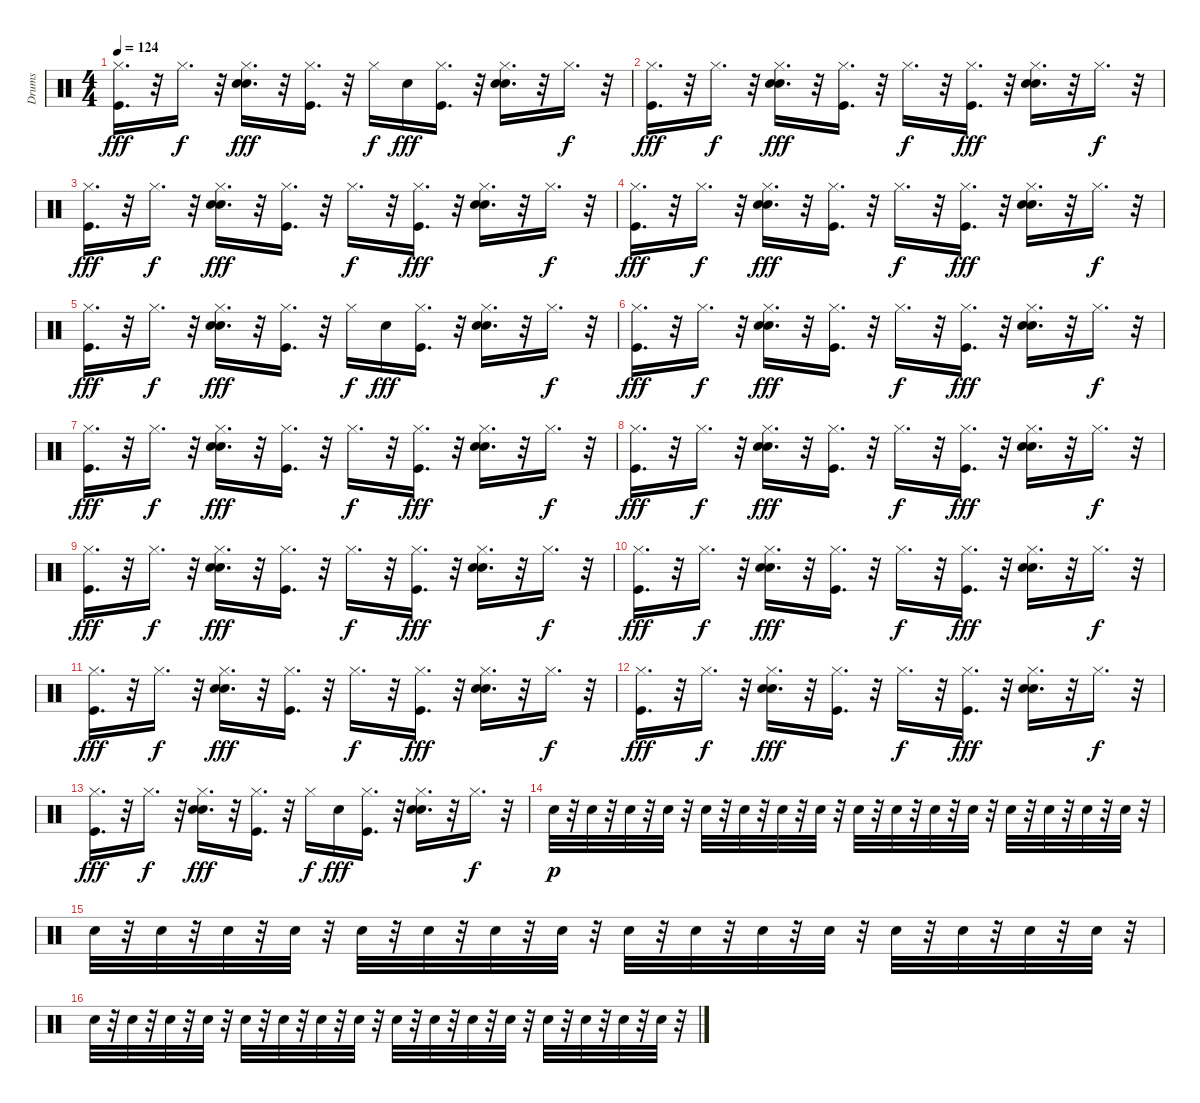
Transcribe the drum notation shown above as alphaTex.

\track ("Drums" "Drums") {instrument percussion}
\staff {score}
\articulation defaults
\ts (4 4)
\tempo 124
\clef neutral
\ks c
("Kick (hit)" "Hi-Hat (closed)").16{d dy fff} r.32 "Hi-Hat (closed)".16{d dy f} r.32 ("Snare (hit) 2" "Hand Clap (hit)" "Hi-Hat (closed)").16{d dy fff} r.32 ("Kick (hit)" "Hi-Hat (closed)").16{d} r.32 "Hi-Hat (closed)".16{dy f} "Snare (hit) 2".16{dy fff} ("Kick (hit)" "Hi-Hat (closed)").16{d} r.32 ("Snare (hit) 2" "Hand Clap (hit)" "Hi-Hat (closed)").16{d} r.32 "Hi-Hat (closed)".16{d dy f} r.32 |
("Kick (hit)" "Hi-Hat (closed)").16{d dy fff} r.32 "Hi-Hat (closed)".16{d dy f} r.32 ("Snare (hit) 2" "Hand Clap (hit)" "Hi-Hat (closed)").16{d dy fff} r.32 ("Kick (hit)" "Hi-Hat (closed)").16{d} r.32 "Hi-Hat (closed)".16{d dy f} r.32 ("Kick (hit)" "Hi-Hat (closed)").16{d dy fff} r.32 ("Snare (hit) 2" "Hand Clap (hit)" "Hi-Hat (closed)").16{d} r.32 "Hi-Hat (closed)".16{d dy f} r.32 |
("Kick (hit)" "Hi-Hat (closed)").16{d dy fff} r.32 "Hi-Hat (closed)".16{d dy f} r.32 ("Snare (hit) 2" "Hand Clap (hit)" "Hi-Hat (closed)").16{d dy fff} r.32 ("Kick (hit)" "Hi-Hat (closed)").16{d} r.32 "Hi-Hat (closed)".16{d dy f} r.32 ("Kick (hit)" "Hi-Hat (closed)").16{d dy fff} r.32 ("Snare (hit) 2" "Hand Clap (hit)" "Hi-Hat (closed)").16{d} r.32 "Hi-Hat (closed)".16{d dy f} r.32 |
("Kick (hit)" "Hi-Hat (closed)").16{d dy fff} r.32 "Hi-Hat (closed)".16{d dy f} r.32 ("Snare (hit) 2" "Hand Clap (hit)" "Hi-Hat (closed)").16{d dy fff} r.32 ("Kick (hit)" "Hi-Hat (closed)").16{d} r.32 "Hi-Hat (closed)".16{d dy f} r.32 ("Kick (hit)" "Hi-Hat (closed)").16{d dy fff} r.32 ("Snare (hit) 2" "Hand Clap (hit)" "Hi-Hat (closed)").16{d} r.32 "Hi-Hat (closed)".16{d dy f} r.32 |
("Kick (hit)" "Hi-Hat (closed)").16{d dy fff} r.32 "Hi-Hat (closed)".16{d dy f} r.32 ("Snare (hit) 2" "Hand Clap (hit)" "Hi-Hat (closed)").16{d dy fff} r.32 ("Kick (hit)" "Hi-Hat (closed)").16{d} r.32 "Hi-Hat (closed)".16{dy f} "Snare (hit) 2".16{dy fff} ("Kick (hit)" "Hi-Hat (closed)").16{d} r.32 ("Snare (hit) 2" "Hand Clap (hit)" "Hi-Hat (closed)").16{d} r.32 "Hi-Hat (closed)".16{d dy f} r.32 |
("Kick (hit)" "Hi-Hat (closed)").16{d dy fff} r.32 "Hi-Hat (closed)".16{d dy f} r.32 ("Snare (hit) 2" "Hand Clap (hit)" "Hi-Hat (closed)").16{d dy fff} r.32 ("Kick (hit)" "Hi-Hat (closed)").16{d} r.32 "Hi-Hat (closed)".16{d dy f} r.32 ("Kick (hit)" "Hi-Hat (closed)").16{d dy fff} r.32 ("Snare (hit) 2" "Hand Clap (hit)" "Hi-Hat (closed)").16{d} r.32 "Hi-Hat (closed)".16{d dy f} r.32 |
("Kick (hit)" "Hi-Hat (closed)").16{d dy fff} r.32 "Hi-Hat (closed)".16{d dy f} r.32 ("Snare (hit) 2" "Hand Clap (hit)" "Hi-Hat (closed)").16{d dy fff} r.32 ("Kick (hit)" "Hi-Hat (closed)").16{d} r.32 "Hi-Hat (closed)".16{d dy f} r.32 ("Kick (hit)" "Hi-Hat (closed)").16{d dy fff} r.32 ("Snare (hit) 2" "Hand Clap (hit)" "Hi-Hat (closed)").16{d} r.32 "Hi-Hat (closed)".16{d dy f} r.32 |
("Kick (hit)" "Hi-Hat (closed)").16{d dy fff} r.32 "Hi-Hat (closed)".16{d dy f} r.32 ("Snare (hit) 2" "Hand Clap (hit)" "Hi-Hat (closed)").16{d dy fff} r.32 ("Kick (hit)" "Hi-Hat (closed)").16{d} r.32 "Hi-Hat (closed)".16{d dy f} r.32 ("Kick (hit)" "Hi-Hat (closed)").16{d dy fff} r.32 ("Snare (hit) 2" "Hand Clap (hit)" "Hi-Hat (closed)").16{d} r.32 "Hi-Hat (closed)".16{d dy f} r.32 |
("Kick (hit)" "Hi-Hat (closed)").16{d dy fff} r.32 "Hi-Hat (closed)".16{d dy f} r.32 ("Snare (hit) 2" "Hand Clap (hit)" "Hi-Hat (closed)").16{d dy fff} r.32 ("Kick (hit)" "Hi-Hat (closed)").16{d} r.32 "Hi-Hat (closed)".16{d dy f} r.32 ("Kick (hit)" "Hi-Hat (closed)").16{d dy fff} r.32 ("Snare (hit) 2" "Hand Clap (hit)" "Hi-Hat (closed)").16{d} r.32 "Hi-Hat (closed)".16{d dy f} r.32 |
("Kick (hit)" "Hi-Hat (closed)").16{d dy fff} r.32 "Hi-Hat (closed)".16{d dy f} r.32 ("Snare (hit) 2" "Hand Clap (hit)" "Hi-Hat (closed)").16{d dy fff} r.32 ("Kick (hit)" "Hi-Hat (closed)").16{d} r.32 "Hi-Hat (closed)".16{d dy f} r.32 ("Kick (hit)" "Hi-Hat (closed)").16{d dy fff} r.32 ("Snare (hit) 2" "Hand Clap (hit)" "Hi-Hat (closed)").16{d} r.32 "Hi-Hat (closed)".16{d dy f} r.32 |
("Kick (hit)" "Hi-Hat (closed)").16{d dy fff} r.32 "Hi-Hat (closed)".16{d dy f} r.32 ("Snare (hit) 2" "Hand Clap (hit)" "Hi-Hat (closed)").16{d dy fff} r.32 ("Kick (hit)" "Hi-Hat (closed)").16{d} r.32 "Hi-Hat (closed)".16{d dy f} r.32 ("Kick (hit)" "Hi-Hat (closed)").16{d dy fff} r.32 ("Snare (hit) 2" "Hand Clap (hit)" "Hi-Hat (closed)").16{d} r.32 "Hi-Hat (closed)".16{d dy f} r.32 |
("Kick (hit)" "Hi-Hat (closed)").16{d dy fff} r.32 "Hi-Hat (closed)".16{d dy f} r.32 ("Snare (hit) 2" "Hand Clap (hit)" "Hi-Hat (closed)").16{d dy fff} r.32 ("Kick (hit)" "Hi-Hat (closed)").16{d} r.32 "Hi-Hat (closed)".16{d dy f} r.32 ("Kick (hit)" "Hi-Hat (closed)").16{d dy fff} r.32 ("Snare (hit) 2" "Hand Clap (hit)" "Hi-Hat (closed)").16{d} r.32 "Hi-Hat (closed)".16{d dy f} r.32 |
("Kick (hit)" "Hi-Hat (closed)").16{d dy fff} r.32 "Hi-Hat (closed)".16{d dy f} r.32 ("Snare (hit) 2" "Hand Clap (hit)" "Hi-Hat (closed)").16{d dy fff} r.32 ("Kick (hit)" "Hi-Hat (closed)").16{d} r.32 "Hi-Hat (closed)".16{dy f} "Snare (hit) 2".16{dy fff} ("Kick (hit)" "Hi-Hat (closed)").16{d} r.32 ("Snare (hit) 2" "Hand Clap (hit)" "Hi-Hat (closed)").16{d} r.32 "Hi-Hat (closed)".16{d dy f} r.32 |
"Snare (hit) 2".32{dy p} r.32 "Snare (hit) 2".32 r.32 "Snare (hit) 2".32 r.32 "Snare (hit) 2".32 r.32 "Snare (hit) 2".32 r.32 "Snare (hit) 2".32 r.32 "Snare (hit) 2".32 r.32 "Snare (hit) 2".32 r.32 "Snare (hit) 2".32 r.32 "Snare (hit) 2".32 r.32 "Snare (hit) 2".32 r.32 "Snare (hit) 2".32 r.32 "Snare (hit) 2".32 r.32 "Snare (hit) 2".32 r.32 "Snare (hit) 2".32 r.32 "Snare (hit) 2".32 r.32 |
"Snare (hit) 2".32 r.32 "Snare (hit) 2".32 r.32 "Snare (hit) 2".32 r.32 "Snare (hit) 2".32 r.32 "Snare (hit) 2".32 r.32 "Snare (hit) 2".32 r.32 "Snare (hit) 2".32 r.32 "Snare (hit) 2".32 r.32 "Snare (hit) 2".32 r.32 "Snare (hit) 2".32 r.32 "Snare (hit) 2".32 r.32 "Snare (hit) 2".32 r.32 "Snare (hit) 2".32 r.32 "Snare (hit) 2".32 r.32 "Snare (hit) 2".32 r.32 "Snare (hit) 2".32 r.32 |
"Snare (hit) 2".32 r.32 "Snare (hit) 2".32 r.32 "Snare (hit) 2".32 r.32 "Snare (hit) 2".32 r.32 "Snare (hit) 2".32 r.32 "Snare (hit) 2".32 r.32 "Snare (hit) 2".32 r.32 "Snare (hit) 2".32 r.32 "Snare (hit) 2".32 r.32 "Snare (hit) 2".32 r.32 "Snare (hit) 2".32 r.32 "Snare (hit) 2".32 r.32 "Snare (hit) 2".32 r.32 "Snare (hit) 2".32 r.32 "Snare (hit) 2".32 r.32 "Snare (hit) 2".32 r.32
